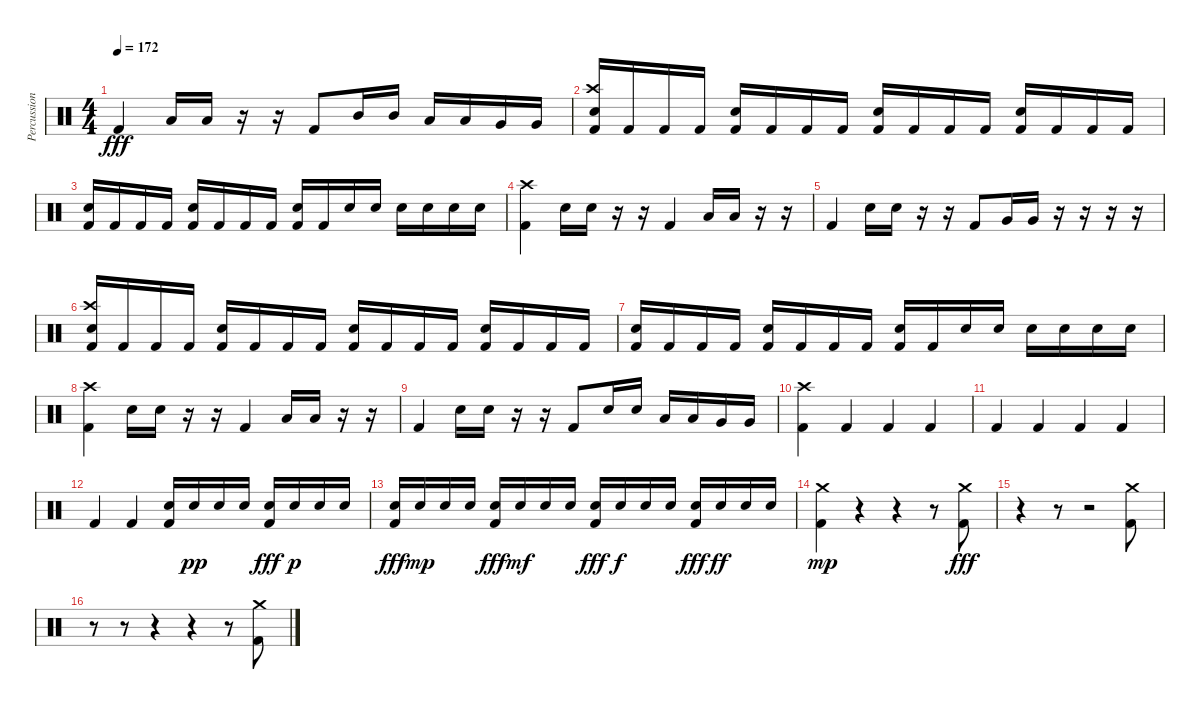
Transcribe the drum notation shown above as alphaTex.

\track ("Percussion" "Percussion") {instrument percussion}
\staff {score}
\articulation defaults
\ts (4 4)
\tempo 172
\clef neutral
\ks c "Kick (hit) 2".4{dy fff} "Low Tom (hit)".16 "Low Tom (hit)".16
r.16 r.16 "Kick (hit) 2".8 "Mid Tom (hit)".16 "Mid Tom (hit)".16 "Low Tom (hit)".16 "Low Tom (hit)".16 "Very Low Tom (hit)".16 "Very Low Tom (hit)".16 |
("Crash high (hit)" "Electric Snare (hit)" "Kick (hit) 2").16 "Kick (hit) 2".16 "Kick (hit) 2".16 "Kick (hit) 2".16 ("Electric Snare (hit)" "Kick (hit) 2").16 "Kick (hit) 2".16 "Kick (hit) 2".16 "Kick (hit) 2".16 ("Electric Snare (hit)" "Kick (hit) 2").16 "Kick (hit) 2".16 "Kick (hit) 2".16 "Kick (hit) 2".16 ("Electric Snare (hit)" "Kick (hit) 2").16 "Kick (hit) 2".16 "Kick (hit) 2".16 "Kick (hit) 2".16 |
("Electric Snare (hit)" "Kick (hit) 2").16 "Kick (hit) 2".16 "Kick (hit) 2".16 "Kick (hit) 2".16 ("Electric Snare (hit)" "Kick (hit) 2").16 "Kick (hit) 2".16 "Kick (hit) 2".16 "Kick (hit) 2".16 ("Electric Snare (hit)" "Kick (hit) 2").16 "Kick (hit) 2".16 "Electric Snare (hit)".16 "Electric Snare (hit)".16 "Electric Snare (hit)".16 "Electric Snare (hit)".16 "Electric Snare (hit)".16 "Electric Snare (hit)".16 |
("Crash high (hit)" "Kick (hit) 2").4 "Electric Snare (hit)".16 "Electric Snare (hit)".16 r.16 r.16 "Kick (hit) 2".4 "Low Tom (hit)".16 "Low Tom (hit)".16 r.16 r.16 |
"Kick (hit) 2".4 "Electric Snare (hit)".16 "Electric Snare (hit)".16 r.16 r.16 "Kick (hit) 2".8 "Very Low Tom (hit)".16 "Very Low Tom (hit)".16 r.16 r.16 r.16 r.16 |
("Crash high (hit)" "Electric Snare (hit)" "Kick (hit) 2").16 "Kick (hit) 2".16 "Kick (hit) 2".16 "Kick (hit) 2".16 ("Electric Snare (hit)" "Kick (hit) 2").16 "Kick (hit) 2".16 "Kick (hit) 2".16 "Kick (hit) 2".16 ("Electric Snare (hit)" "Kick (hit) 2").16 "Kick (hit) 2".16 "Kick (hit) 2".16 "Kick (hit) 2".16 ("Electric Snare (hit)" "Kick (hit) 2").16 "Kick (hit) 2".16 "Kick (hit) 2".16 "Kick (hit) 2".16 |
("Electric Snare (hit)" "Kick (hit) 2").16 "Kick (hit) 2".16 "Kick (hit) 2".16 "Kick (hit) 2".16 ("Electric Snare (hit)" "Kick (hit) 2").16 "Kick (hit) 2".16 "Kick (hit) 2".16 "Kick (hit) 2".16 ("Electric Snare (hit)" "Kick (hit) 2").16 "Kick (hit) 2".16 "Electric Snare (hit)".16 "Electric Snare (hit)".16 "Electric Snare (hit)".16 "Electric Snare (hit)".16 "Electric Snare (hit)".16 "Electric Snare (hit)".16 |
("Crash high (hit)" "Kick (hit) 2").4 "Electric Snare (hit)".16 "Electric Snare (hit)".16 r.16 r.16 "Kick (hit) 2".4 "Low Tom (hit)".16 "Low Tom (hit)".16 r.16 r.16 |
"Kick (hit) 2".4 "Electric Snare (hit)".16 "Electric Snare (hit)".16 r.16 r.16 "Kick (hit) 2".8 "Electric Snare (hit)".16 "Electric Snare (hit)".16 "Low Tom (hit)".16 "Low Tom (hit)".16 "Very Low Tom (hit)".16 "Very Low Tom (hit)".16 |
("Crash high (hit)" "Kick (hit) 2").4 "Kick (hit) 2".4 "Kick (hit) 2".4 "Kick (hit) 2".4 |
"Kick (hit) 2".4 "Kick (hit) 2".4 "Kick (hit) 2".4 "Kick (hit) 2".4 |
"Kick (hit) 2".4 "Kick (hit) 2".4 ("Electric Snare (hit)" "Kick (hit) 2").16 "Electric Snare (hit)".16{dy pp} "Electric Snare (hit)".16 "Electric Snare (hit)".16 ("Electric Snare (hit)" "Kick (hit) 2").16{dy fff} "Electric Snare (hit)".16{dy p} "Electric Snare (hit)".16 "Electric Snare (hit)".16 |
("Electric Snare (hit)" "Kick (hit) 2").16{dy fff} "Electric Snare (hit)".16{dy mp} "Electric Snare (hit)".16 "Electric Snare (hit)".16 ("Electric Snare (hit)" "Kick (hit) 2").16{dy fff} "Electric Snare (hit)".16{dy mf} "Electric Snare (hit)".16 "Electric Snare (hit)".16 ("Electric Snare (hit)" "Kick (hit) 2").16{dy fff} "Electric Snare (hit)".16{dy f} "Electric Snare (hit)".16 "Electric Snare (hit)".16 ("Electric Snare (hit)" "Kick (hit) 2").16{dy fff} "Electric Snare (hit)".16{dy ff} "Electric Snare (hit)".16 "Electric Snare (hit)".16 |
("Crash medium (hit)" "Kick (hit) 2").4{dy mp} r.4 r.4 r.8 ("Crash medium (hit)" "Kick (hit) 2").8{dy fff} |
r.4 r.8 r.2 ("Crash medium (hit)" "Kick (hit) 2").8 |
r.8 r.8 r.4 r.4 r.8 ("Crash medium (hit)" "Kick (hit) 2").8
